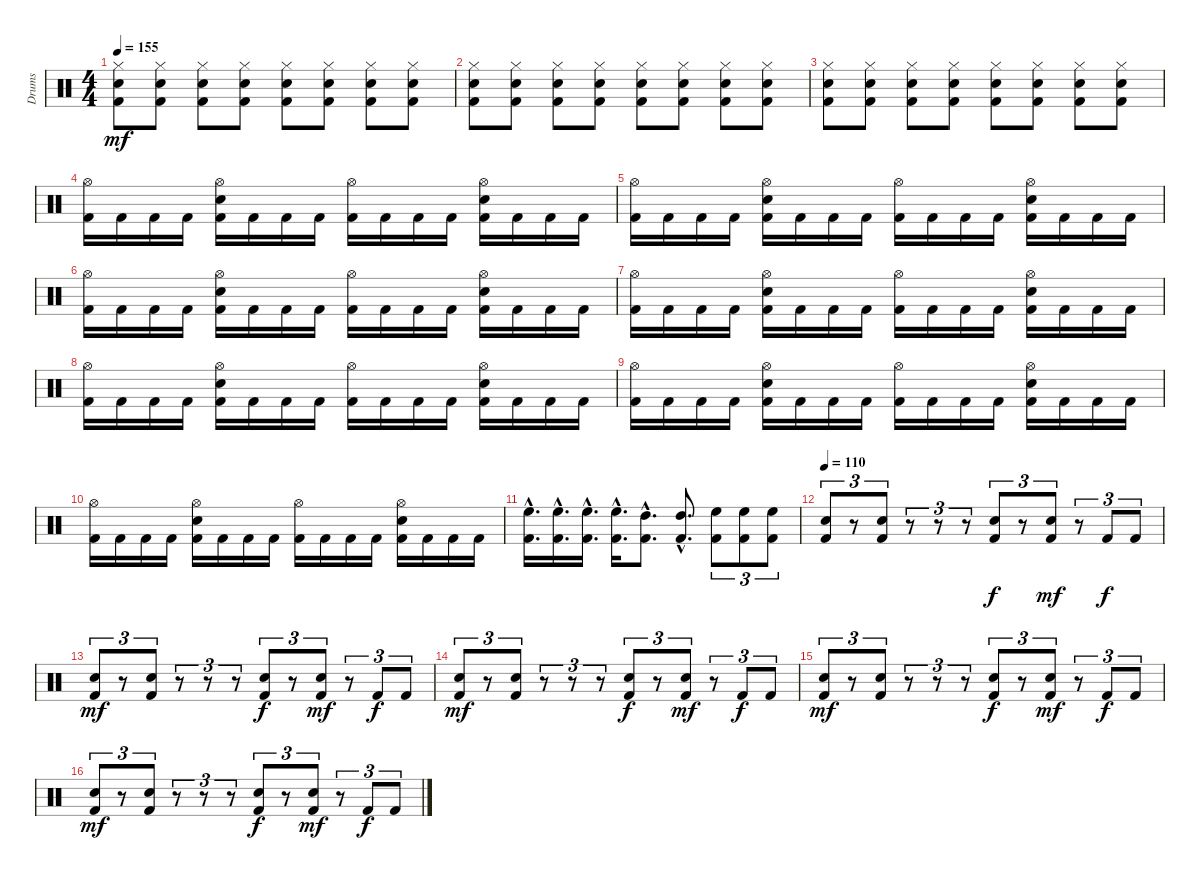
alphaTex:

\track ("Drums" "Drums") {instrument percussion}
\staff {score}
\articulation defaults
\ts (4 4)
\tempo 155
\clef neutral
\ks c
("Kick (hit) 2" "Snare (hit) 2" "Hi-Hat (closed)").8{dy mf} ("Kick (hit) 2" "Snare (hit) 2" "Hi-Hat (closed)").8 ("Kick (hit) 2" "Snare (hit) 2" "Hi-Hat (closed)").8 ("Kick (hit) 2" "Snare (hit) 2" "Hi-Hat (closed)").8 ("Kick (hit) 2" "Snare (hit) 2" "Hi-Hat (closed)").8 ("Kick (hit) 2" "Snare (hit) 2" "Hi-Hat (closed)").8 ("Kick (hit) 2" "Snare (hit) 2" "Hi-Hat (closed)").8 ("Kick (hit) 2" "Snare (hit) 2" "Hi-Hat (closed)").8 |
("Kick (hit) 2" "Snare (hit) 2" "Hi-Hat (closed)").8 ("Kick (hit) 2" "Snare (hit) 2" "Hi-Hat (closed)").8 ("Kick (hit) 2" "Snare (hit) 2" "Hi-Hat (closed)").8 ("Kick (hit) 2" "Snare (hit) 2" "Hi-Hat (closed)").8 ("Kick (hit) 2" "Snare (hit) 2" "Hi-Hat (closed)").8 ("Kick (hit) 2" "Snare (hit) 2" "Hi-Hat (closed)").8 ("Kick (hit) 2" "Snare (hit) 2" "Hi-Hat (closed)").8 ("Kick (hit) 2" "Snare (hit) 2" "Hi-Hat (closed)").8 |
("Kick (hit) 2" "Snare (hit) 2" "Hi-Hat (closed)").8 ("Kick (hit) 2" "Snare (hit) 2" "Hi-Hat (closed)").8 ("Kick (hit) 2" "Snare (hit) 2" "Hi-Hat (closed)").8 ("Kick (hit) 2" "Snare (hit) 2" "Hi-Hat (closed)").8 ("Kick (hit) 2" "Snare (hit) 2" "Hi-Hat (closed)").8 ("Kick (hit) 2" "Snare (hit) 2" "Hi-Hat (closed)").8 ("Kick (hit) 2" "Snare (hit) 2" "Hi-Hat (closed)").8 ("Kick (hit) 2" "Snare (hit) 2" "Hi-Hat (closed)").8 |
("Kick (hit) 2" "Hi-Hat (open)").16 "Kick (hit) 2".16 "Kick (hit) 2".16 "Kick (hit) 2".16 ("Kick (hit) 2" "Snare (hit) 2" "Hi-Hat (open)").16 "Kick (hit) 2".16 "Kick (hit) 2".16 "Kick (hit) 2".16 ("Kick (hit) 2" "Hi-Hat (open)").16 "Kick (hit) 2".16 "Kick (hit) 2".16 "Kick (hit) 2".16 ("Kick (hit) 2" "Snare (hit) 2" "Hi-Hat (open)").16 "Kick (hit) 2".16 "Kick (hit) 2".16 "Kick (hit) 2".16 |
("Kick (hit) 2" "Hi-Hat (open)").16 "Kick (hit) 2".16 "Kick (hit) 2".16 "Kick (hit) 2".16 ("Kick (hit) 2" "Snare (hit) 2" "Hi-Hat (open)").16 "Kick (hit) 2".16 "Kick (hit) 2".16 "Kick (hit) 2".16 ("Kick (hit) 2" "Hi-Hat (open)").16 "Kick (hit) 2".16 "Kick (hit) 2".16 "Kick (hit) 2".16 ("Kick (hit) 2" "Snare (hit) 2" "Hi-Hat (open)").16 "Kick (hit) 2".16 "Kick (hit) 2".16 "Kick (hit) 2".16 |
("Kick (hit) 2" "Hi-Hat (open)").16 "Kick (hit) 2".16 "Kick (hit) 2".16 "Kick (hit) 2".16 ("Kick (hit) 2" "Snare (hit) 2" "Hi-Hat (open)").16 "Kick (hit) 2".16 "Kick (hit) 2".16 "Kick (hit) 2".16 ("Kick (hit) 2" "Hi-Hat (open)").16 "Kick (hit) 2".16 "Kick (hit) 2".16 "Kick (hit) 2".16 ("Kick (hit) 2" "Snare (hit) 2" "Hi-Hat (open)").16 "Kick (hit) 2".16 "Kick (hit) 2".16 "Kick (hit) 2".16 |
("Kick (hit) 2" "Hi-Hat (open)").16 "Kick (hit) 2".16 "Kick (hit) 2".16 "Kick (hit) 2".16 ("Kick (hit) 2" "Snare (hit) 2" "Hi-Hat (open)").16 "Kick (hit) 2".16 "Kick (hit) 2".16 "Kick (hit) 2".16 ("Kick (hit) 2" "Hi-Hat (open)").16 "Kick (hit) 2".16 "Kick (hit) 2".16 "Kick (hit) 2".16 ("Kick (hit) 2" "Snare (hit) 2" "Hi-Hat (open)").16 "Kick (hit) 2".16 "Kick (hit) 2".16 "Kick (hit) 2".16 |
("Kick (hit) 2" "Hi-Hat (open)").16 "Kick (hit) 2".16 "Kick (hit) 2".16 "Kick (hit) 2".16 ("Kick (hit) 2" "Snare (hit) 2" "Hi-Hat (open)").16 "Kick (hit) 2".16 "Kick (hit) 2".16 "Kick (hit) 2".16 ("Kick (hit) 2" "Hi-Hat (open)").16 "Kick (hit) 2".16 "Kick (hit) 2".16 "Kick (hit) 2".16 ("Kick (hit) 2" "Snare (hit) 2" "Hi-Hat (open)").16 "Kick (hit) 2".16 "Kick (hit) 2".16 "Kick (hit) 2".16 |
("Kick (hit) 2" "Hi-Hat (open)").16 "Kick (hit) 2".16 "Kick (hit) 2".16 "Kick (hit) 2".16 ("Kick (hit) 2" "Snare (hit) 2" "Hi-Hat (open)").16 "Kick (hit) 2".16 "Kick (hit) 2".16 "Kick (hit) 2".16 ("Kick (hit) 2" "Hi-Hat (open)").16 "Kick (hit) 2".16 "Kick (hit) 2".16 "Kick (hit) 2".16 ("Kick (hit) 2" "Snare (hit) 2" "Hi-Hat (open)").16 "Kick (hit) 2".16 "Kick (hit) 2".16 "Kick (hit) 2".16 |
("Kick (hit) 2" "Hi-Hat (open)").16 "Kick (hit) 2".16 "Kick (hit) 2".16 "Kick (hit) 2".16 ("Kick (hit) 2" "Snare (hit) 2" "Hi-Hat (open)").16 "Kick (hit) 2".16 "Kick (hit) 2".16 "Kick (hit) 2".16 ("Kick (hit) 2" "Hi-Hat (open)").16 "Kick (hit) 2".16 "Kick (hit) 2".16 "Kick (hit) 2".16 ("Kick (hit) 2" "Snare (hit) 2" "Hi-Hat (open)").16 "Kick (hit) 2".16 "Kick (hit) 2".16 "Kick (hit) 2".16 |
("Kick (hit) 2"{hac} "High Floor Tom (hit)"{hac}).16{d} ("Kick (hit) 2"{hac} "High Floor Tom (hit)"{hac}).16{d} ("Kick (hit) 2"{hac} "High Floor Tom (hit)"{hac}).16{d} ("Kick (hit) 2"{hac} "High Floor Tom (hit)"{hac}).16{d} ("Kick (hit) 2"{hac} "High Tom (hit)"{hac}).8{d} ("Kick (hit) 2"{hac} "High Tom (hit)"{hac}).8{d} ("Kick (hit) 2" "High Floor Tom (hit)").8{tu (3 2)} ("Kick (hit) 2" "High Floor Tom (hit)").8{tu (3 2)} ("Kick (hit) 2" "High Floor Tom (hit)").8{tu (3 2)} |
\tempo 110
("Kick (hit) 2" "Snare (hit) 2").8{tu (3 2)} r.8{tu (3 2)} ("Kick (hit) 2" "Snare (hit) 2").8{tu (3 2)} r.8{tu (3 2)} r.8{tu (3 2)} r.8{tu (3 2)} ("Kick (hit) 2" "Snare (hit) 2").8{tu (3 2) dy f} r.8{tu (3 2)} ("Kick (hit) 2" "Snare (hit) 2").8{tu (3 2) dy mf} r.8{tu (3 2)} "Kick (hit) 2".8{tu (3 2) dy f} "Kick (hit) 2".8{tu (3 2)} |
("Kick (hit) 2" "Snare (hit) 2").8{tu (3 2) dy mf} r.8{tu (3 2)} ("Kick (hit) 2" "Snare (hit) 2").8{tu (3 2)} r.8{tu (3 2)} r.8{tu (3 2)} r.8{tu (3 2)} ("Kick (hit) 2" "Snare (hit) 2").8{tu (3 2) dy f} r.8{tu (3 2)} ("Kick (hit) 2" "Snare (hit) 2").8{tu (3 2) dy mf} r.8{tu (3 2)} "Kick (hit) 2".8{tu (3 2) dy f} "Kick (hit) 2".8{tu (3 2)} |
("Kick (hit) 2" "Snare (hit) 2").8{tu (3 2) dy mf} r.8{tu (3 2)} ("Kick (hit) 2" "Snare (hit) 2").8{tu (3 2)} r.8{tu (3 2)} r.8{tu (3 2)} r.8{tu (3 2)} ("Kick (hit) 2" "Snare (hit) 2").8{tu (3 2) dy f} r.8{tu (3 2)} ("Kick (hit) 2" "Snare (hit) 2").8{tu (3 2) dy mf} r.8{tu (3 2)} "Kick (hit) 2".8{tu (3 2) dy f} "Kick (hit) 2".8{tu (3 2)} |
("Kick (hit) 2" "Snare (hit) 2").8{tu (3 2) dy mf} r.8{tu (3 2)} ("Kick (hit) 2" "Snare (hit) 2").8{tu (3 2)} r.8{tu (3 2)} r.8{tu (3 2)} r.8{tu (3 2)} ("Kick (hit) 2" "Snare (hit) 2").8{tu (3 2) dy f} r.8{tu (3 2)} ("Kick (hit) 2" "Snare (hit) 2").8{tu (3 2) dy mf} r.8{tu (3 2)} "Kick (hit) 2".8{tu (3 2) dy f} "Kick (hit) 2".8{tu (3 2)} |
("Kick (hit) 2" "Snare (hit) 2").8{tu (3 2) dy mf} r.8{tu (3 2)} ("Kick (hit) 2" "Snare (hit) 2").8{tu (3 2)} r.8{tu (3 2)} r.8{tu (3 2)} r.8{tu (3 2)} ("Kick (hit) 2" "Snare (hit) 2").8{tu (3 2) dy f} r.8{tu (3 2)} ("Kick (hit) 2" "Snare (hit) 2").8{tu (3 2) dy mf} r.8{tu (3 2)} "Kick (hit) 2".8{tu (3 2) dy f} "Kick (hit) 2".8{tu (3 2)}
